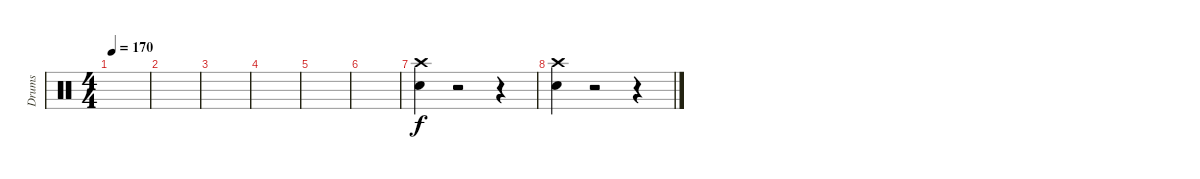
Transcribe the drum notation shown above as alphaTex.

\track ("Drums" "Drums") {instrument percussion}
\staff {score}
\articulation defaults
\ts (4 4)
\tempo 170
\clef neutral
\ks c
|
|
|
|
|
|
("Crash high (hit)" "Snare (hit) 2").4 r.2 r.4 |
("Crash high (hit)" "Snare (hit) 2").4 r.2 r.4
